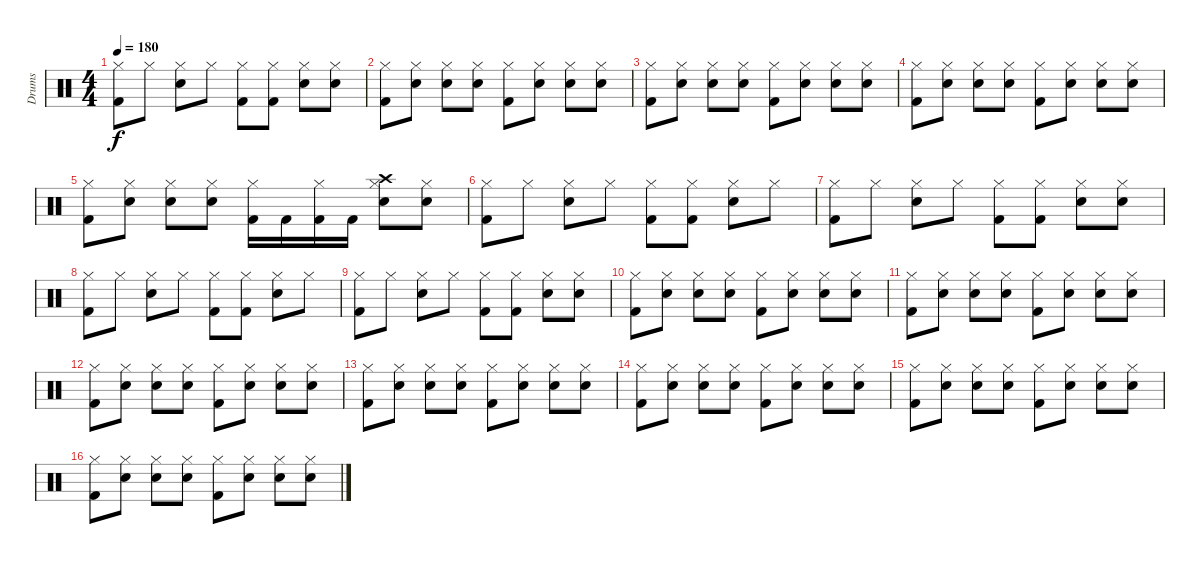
\track ("Drums" "Drums") {instrument percussion}
\staff {score}
\articulation defaults
\ts (4 4)
\tempo 180
\clef neutral
\ks c
("Hi-Hat (closed)" "Kick (hit) 2").8{dy f} "Hi-Hat (closed)".8 ("Hi-Hat (closed)" "Snare (hit) 2").8 "Hi-Hat (closed)".8 ("Hi-Hat (closed)" "Kick (hit) 2").8 ("Hi-Hat (closed)" "Kick (hit) 2").8 ("Hi-Hat (closed)" "Snare (hit) 2").8 ("Hi-Hat (closed)" "Snare (hit) 2").8 |
("Kick (hit) 2" "Hi-Hat (closed)").8 ("Hi-Hat (closed)" "Snare (hit) 2").8 ("Hi-Hat (closed)" "Electric Snare (hit)").8 ("Hi-Hat (closed)" "Electric Snare (hit)").8 ("Hi-Hat (closed)" "Kick (hit) 2").8 ("Hi-Hat (closed)" "Snare (hit) 2").8 ("Hi-Hat (closed)" "Snare (hit) 2").8 ("Hi-Hat (closed)" "Snare (hit) 2").8 |
("Kick (hit) 2" "Hi-Hat (closed)").8 ("Hi-Hat (closed)" "Snare (hit) 2").8 ("Hi-Hat (closed)" "Electric Snare (hit)").8 ("Hi-Hat (closed)" "Electric Snare (hit)").8 ("Hi-Hat (closed)" "Kick (hit) 2").8 ("Hi-Hat (closed)" "Snare (hit) 2").8 ("Hi-Hat (closed)" "Snare (hit) 2").8 ("Hi-Hat (closed)" "Snare (hit) 2").8 |
("Kick (hit) 2" "Hi-Hat (closed)").8 ("Hi-Hat (closed)" "Snare (hit) 2").8 ("Hi-Hat (closed)" "Electric Snare (hit)").8 ("Hi-Hat (closed)" "Electric Snare (hit)").8 ("Hi-Hat (closed)" "Kick (hit) 2").8 ("Hi-Hat (closed)" "Snare (hit) 2").8 ("Hi-Hat (closed)" "Snare (hit) 2").8 ("Hi-Hat (closed)" "Snare (hit) 2").8 |
("Kick (hit) 2" "Hi-Hat (closed)").8 ("Hi-Hat (closed)" "Snare (hit) 2").8 ("Hi-Hat (closed)" "Electric Snare (hit)").8 ("Hi-Hat (closed)" "Electric Snare (hit)").8 ("Hi-Hat (closed)" "Kick (hit) 2").16 "Kick (hit) 2".16 ("Hi-Hat (closed)" "Kick (hit) 2").16 "Kick (hit) 2".16 ("Hi-Hat (closed)" "Snare (hit) 2" "Crash high (hit)").8 ("Hi-Hat (closed)" "Snare (hit) 2").8 |
("Hi-Hat (closed)" "Kick (hit) 2").8 "Hi-Hat (closed)".8 ("Hi-Hat (closed)" "Snare (hit) 2").8 "Hi-Hat (closed)".8 ("Hi-Hat (closed)" "Kick (hit) 2").8 ("Hi-Hat (closed)" "Kick (hit) 2").8 ("Hi-Hat (closed)" "Snare (hit) 2").8 "Hi-Hat (closed)".8 |
("Hi-Hat (closed)" "Kick (hit) 2").8 "Hi-Hat (closed)".8 ("Hi-Hat (closed)" "Snare (hit) 2").8 "Hi-Hat (closed)".8 ("Hi-Hat (closed)" "Kick (hit) 2").8 ("Hi-Hat (closed)" "Kick (hit) 2").8 ("Hi-Hat (closed)" "Snare (hit) 2").8 ("Hi-Hat (closed)" "Snare (hit) 2").8 |
("Hi-Hat (closed)" "Kick (hit) 2").8 "Hi-Hat (closed)".8 ("Hi-Hat (closed)" "Snare (hit) 2").8 "Hi-Hat (closed)".8 ("Hi-Hat (closed)" "Kick (hit) 2").8 ("Hi-Hat (closed)" "Kick (hit) 2").8 ("Hi-Hat (closed)" "Snare (hit) 2").8 "Hi-Hat (closed)".8 |
("Hi-Hat (closed)" "Kick (hit) 2").8 "Hi-Hat (closed)".8 ("Hi-Hat (closed)" "Snare (hit) 2").8 "Hi-Hat (closed)".8 ("Hi-Hat (closed)" "Kick (hit) 2").8 ("Hi-Hat (closed)" "Kick (hit) 2").8 ("Hi-Hat (closed)" "Snare (hit) 2").8 ("Hi-Hat (closed)" "Snare (hit) 2").8 |
("Kick (hit) 2" "Hi-Hat (closed)").8 ("Hi-Hat (closed)" "Snare (hit) 2").8 ("Hi-Hat (closed)" "Electric Snare (hit)").8 ("Hi-Hat (closed)" "Electric Snare (hit)").8 ("Hi-Hat (closed)" "Kick (hit) 2").8 ("Hi-Hat (closed)" "Snare (hit) 2").8 ("Hi-Hat (closed)" "Snare (hit) 2").8 ("Hi-Hat (closed)" "Snare (hit) 2").8 |
("Kick (hit) 2" "Hi-Hat (closed)").8 ("Hi-Hat (closed)" "Snare (hit) 2").8 ("Hi-Hat (closed)" "Electric Snare (hit)").8 ("Hi-Hat (closed)" "Electric Snare (hit)").8 ("Hi-Hat (closed)" "Kick (hit) 2").8 ("Hi-Hat (closed)" "Snare (hit) 2").8 ("Hi-Hat (closed)" "Snare (hit) 2").8 ("Hi-Hat (closed)" "Snare (hit) 2").8 |
("Kick (hit) 2" "Hi-Hat (closed)").8 ("Hi-Hat (closed)" "Snare (hit) 2").8 ("Hi-Hat (closed)" "Electric Snare (hit)").8 ("Hi-Hat (closed)" "Electric Snare (hit)").8 ("Hi-Hat (closed)" "Kick (hit) 2").8 ("Hi-Hat (closed)" "Snare (hit) 2").8 ("Hi-Hat (closed)" "Snare (hit) 2").8 ("Hi-Hat (closed)" "Snare (hit) 2").8 |
("Kick (hit) 2" "Hi-Hat (closed)").8 ("Hi-Hat (closed)" "Snare (hit) 2").8 ("Hi-Hat (closed)" "Electric Snare (hit)").8 ("Hi-Hat (closed)" "Electric Snare (hit)").8 ("Hi-Hat (closed)" "Kick (hit) 2").8 ("Hi-Hat (closed)" "Snare (hit) 2").8 ("Hi-Hat (closed)" "Snare (hit) 2").8 ("Hi-Hat (closed)" "Snare (hit) 2").8 |
("Kick (hit) 2" "Hi-Hat (closed)").8 ("Hi-Hat (closed)" "Snare (hit) 2").8 ("Hi-Hat (closed)" "Electric Snare (hit)").8 ("Hi-Hat (closed)" "Electric Snare (hit)").8 ("Hi-Hat (closed)" "Kick (hit) 2").8 ("Hi-Hat (closed)" "Snare (hit) 2").8 ("Hi-Hat (closed)" "Snare (hit) 2").8 ("Hi-Hat (closed)" "Snare (hit) 2").8 |
("Kick (hit) 2" "Hi-Hat (closed)").8 ("Hi-Hat (closed)" "Snare (hit) 2").8 ("Hi-Hat (closed)" "Electric Snare (hit)").8 ("Hi-Hat (closed)" "Electric Snare (hit)").8 ("Hi-Hat (closed)" "Kick (hit) 2").8 ("Hi-Hat (closed)" "Snare (hit) 2").8 ("Hi-Hat (closed)" "Snare (hit) 2").8 ("Hi-Hat (closed)" "Snare (hit) 2").8 |
("Kick (hit) 2" "Hi-Hat (closed)").8 ("Hi-Hat (closed)" "Snare (hit) 2").8 ("Hi-Hat (closed)" "Electric Snare (hit)").8 ("Hi-Hat (closed)" "Electric Snare (hit)").8 ("Hi-Hat (closed)" "Kick (hit) 2").8 ("Hi-Hat (closed)" "Snare (hit) 2").8 ("Hi-Hat (closed)" "Snare (hit) 2").8 ("Hi-Hat (closed)" "Snare (hit) 2").8
